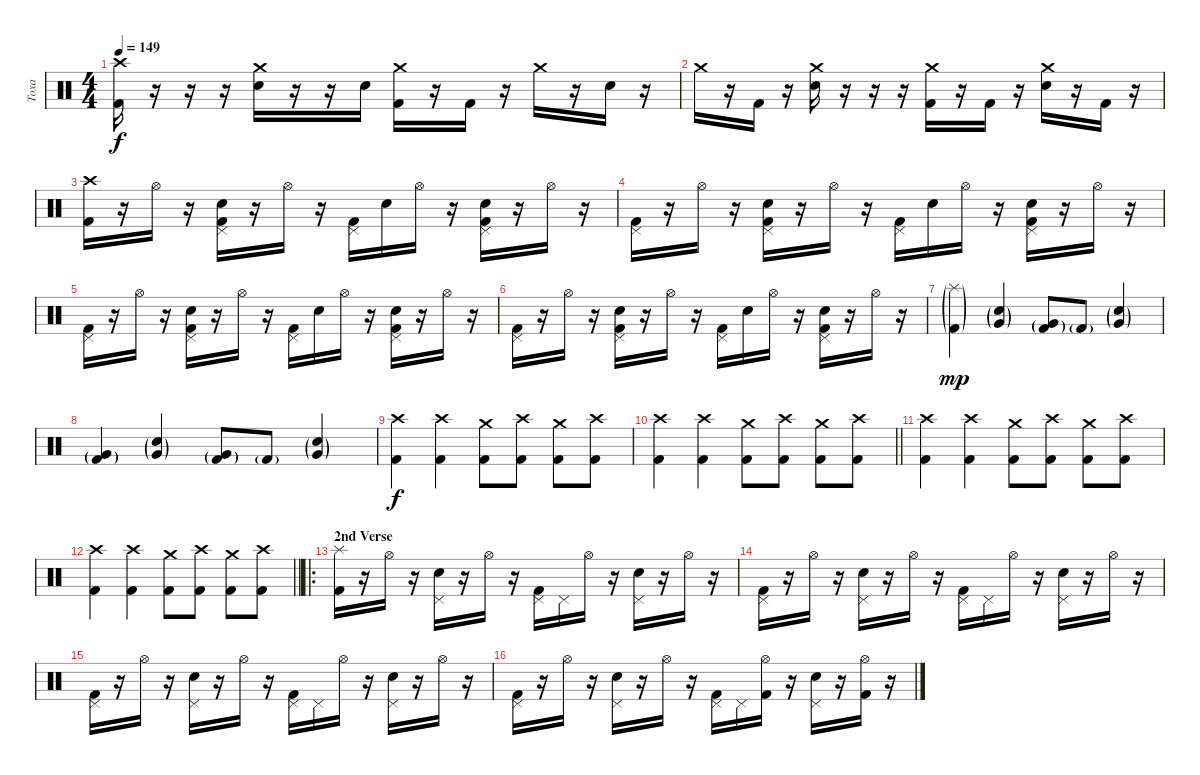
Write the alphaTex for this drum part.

\track ("Toxa" "Toxa") {instrument percussion}
\staff {score}
\articulation defaults
\ts (4 4)
\tempo 149
\clef neutral
\ks c
("Kick (hit) 2" "Crash high (hit)").16{dy f} r.16 r.16 r.16 ("Snare (hit) 2" "Crash medium (hit)").16 r.16 r.16 "Snare (hit) 2".16 ("Kick (hit) 2" "Crash medium (hit)").16 r.16 "Kick (hit) 2".16 r.16 "Crash medium (hit)".16 r.16 "Snare (hit) 2".16 r.16 |
"Crash medium (hit)".16 r.16 "Kick (hit) 2".16 r.16 ("Snare (hit) 2" "Crash medium (hit)").16 r.16 r.16 r.16 ("Kick (hit) 2" "Crash medium (hit)").16 r.16 "Kick (hit) 2".16 r.16 ("Snare (hit) 2" "Crash medium (hit)").16 r.16 "Kick (hit) 2".16 r.16 |
("Kick (hit) 2" "Crash high (hit)").16 r.16 "Hi-Hat (open)".16 r.16 ("Snare (hit) 2" "Pedal Hi-Hat (hit)" "Kick (hit) 2").16 r.16 "Hi-Hat (open)".16 r.16 ("Kick (hit) 2" "Pedal Hi-Hat (hit)").16 "Snare (hit) 2".16 "Hi-Hat (open)".16 r.16 ("Snare (hit) 2" "Kick (hit) 2" "Pedal Hi-Hat (hit)").16 r.16 "Hi-Hat (open)".16 r.16 |
("Kick (hit) 2" "Pedal Hi-Hat (hit)").16 r.16 "Hi-Hat (open)".16 r.16 ("Snare (hit) 2" "Pedal Hi-Hat (hit)" "Kick (hit) 2").16 r.16 "Hi-Hat (open)".16 r.16 ("Kick (hit) 2" "Pedal Hi-Hat (hit)").16 "Snare (hit) 2".16 "Hi-Hat (open)".16 r.16 ("Snare (hit) 2" "Kick (hit) 2" "Pedal Hi-Hat (hit)").16 r.16 "Hi-Hat (open)".16 r.16 |
("Kick (hit) 2" "Pedal Hi-Hat (hit)").16 r.16 "Hi-Hat (open)".16 r.16 ("Snare (hit) 2" "Pedal Hi-Hat (hit)" "Kick (hit) 2").16 r.16 "Hi-Hat (open)".16 r.16 ("Kick (hit) 2" "Pedal Hi-Hat (hit)").16 "Snare (hit) 2".16 "Hi-Hat (open)".16 r.16 ("Snare (hit) 2" "Kick (hit) 2" "Pedal Hi-Hat (hit)").16 r.16 "Hi-Hat (open)".16 r.16 |
("Kick (hit) 2" "Pedal Hi-Hat (hit)").16 r.16 "Hi-Hat (open)".16 r.16 ("Snare (hit) 2" "Pedal Hi-Hat (hit)" "Kick (hit) 2").16 r.16 "Hi-Hat (open)".16 r.16 ("Kick (hit) 2" "Pedal Hi-Hat (hit)").16 "Snare (hit) 2".16 "Hi-Hat (open)".16 r.16 ("Snare (hit) 2" "Kick (hit) 2" "Pedal Hi-Hat (hit)").16 r.16 "Hi-Hat (open)".16 r.16 |
("Kick (hit) 2"{g} "Splash (hit)"{g}).4{dy mp} ("Snare (hit) 2"{g} "Very Low Tom (hit)"{g}).4 ("Kick (hit) 2"{g} "Very Low Tom (hit)"{g}).8 "Kick (hit) 2"{g}.8 ("Snare (hit) 2"{g} "Very Low Tom (hit)"{g}).4 |
("Kick (hit) 2"{g} "Very Low Tom (hit)"{g}).4 ("Snare (hit) 2"{g} "Very Low Tom (hit)"{g}).4 ("Kick (hit) 2"{g} "Very Low Tom (hit)"{g}).8 "Kick (hit) 2"{g}.8 ("Snare (hit) 2"{g} "Very Low Tom (hit)"{g}).4 |
("Crash high (hit)" "Kick (hit) 2").4{dy f} ("Kick (hit) 2" "Crash high (hit)").4 ("Kick (hit) 2" "Crash medium (hit)").8 ("Kick (hit) 2" "Crash high (hit)").8 ("Kick (hit) 2" "Crash medium (hit)").8 ("Kick (hit) 2" "Crash high (hit)").8 |
\barLineRight lightlight
("Crash high (hit)" "Kick (hit) 2").4 ("Kick (hit) 2" "Crash high (hit)").4 ("Kick (hit) 2" "Crash medium (hit)").8 ("Kick (hit) 2" "Crash high (hit)").8 ("Kick (hit) 2" "Crash medium (hit)").8 ("Kick (hit) 2" "Crash high (hit)").8 |
("Crash high (hit)" "Kick (hit) 2").4 ("Kick (hit) 2" "Crash high (hit)").4 ("Kick (hit) 2" "Crash medium (hit)").8 ("Kick (hit) 2" "Crash high (hit)").8 ("Kick (hit) 2" "Crash medium (hit)").8 ("Kick (hit) 2" "Crash high (hit)").8 |
\barLineRight lightlight
("Crash high (hit)" "Kick (hit) 2").4 ("Kick (hit) 2" "Crash high (hit)").4 ("Kick (hit) 2" "Crash medium (hit)").8 ("Kick (hit) 2" "Crash high (hit)").8 ("Kick (hit) 2" "Crash medium (hit)").8 ("Kick (hit) 2" "Crash high (hit)").8 |
\ro
\section ("" "2nd Verse")
("Kick (hit) 2" "Splash (hit)").16 r.16 "Hi-Hat (open)".16 r.16 ("Snare (hit) 2" "Pedal Hi-Hat (hit)").16 r.16 "Hi-Hat (open)".16 r.16 ("Kick (hit) 2" "Pedal Hi-Hat (hit)").16 "Pedal Hi-Hat (hit)".16 "Hi-Hat (open)".16 r.16 ("Snare (hit) 2" "Pedal Hi-Hat (hit)").16 r.16 "Hi-Hat (open)".16 r.16 |
("Kick (hit) 2" "Pedal Hi-Hat (hit)").16 r.16 "Hi-Hat (open)".16 r.16 ("Snare (hit) 2" "Pedal Hi-Hat (hit)").16 r.16 "Hi-Hat (open)".16 r.16 ("Kick (hit) 2" "Pedal Hi-Hat (hit)").16 "Pedal Hi-Hat (hit)".16 "Hi-Hat (open)".16 r.16 ("Snare (hit) 2" "Pedal Hi-Hat (hit)").16 r.16 "Hi-Hat (open)".16 r.16 |
("Kick (hit) 2" "Pedal Hi-Hat (hit)").16 r.16 "Hi-Hat (open)".16 r.16 ("Snare (hit) 2" "Pedal Hi-Hat (hit)").16 r.16 "Hi-Hat (open)".16 r.16 ("Kick (hit) 2" "Pedal Hi-Hat (hit)").16 "Pedal Hi-Hat (hit)".16 "Hi-Hat (open)".16 r.16 ("Snare (hit) 2" "Pedal Hi-Hat (hit)").16 r.16 "Hi-Hat (open)".16 r.16 |
("Kick (hit) 2" "Pedal Hi-Hat (hit)").16 r.16 "Hi-Hat (open)".16 r.16 ("Snare (hit) 2" "Pedal Hi-Hat (hit)").16 r.16 "Hi-Hat (open)".16 r.16 ("Kick (hit) 2" "Pedal Hi-Hat (hit)").16 "Pedal Hi-Hat (hit)".16 ("Hi-Hat (open)" "Kick (hit) 2").16 r.16 ("Snare (hit) 2" "Pedal Hi-Hat (hit)").16 r.16 ("Hi-Hat (open)" "Kick (hit) 2").16 r.16
